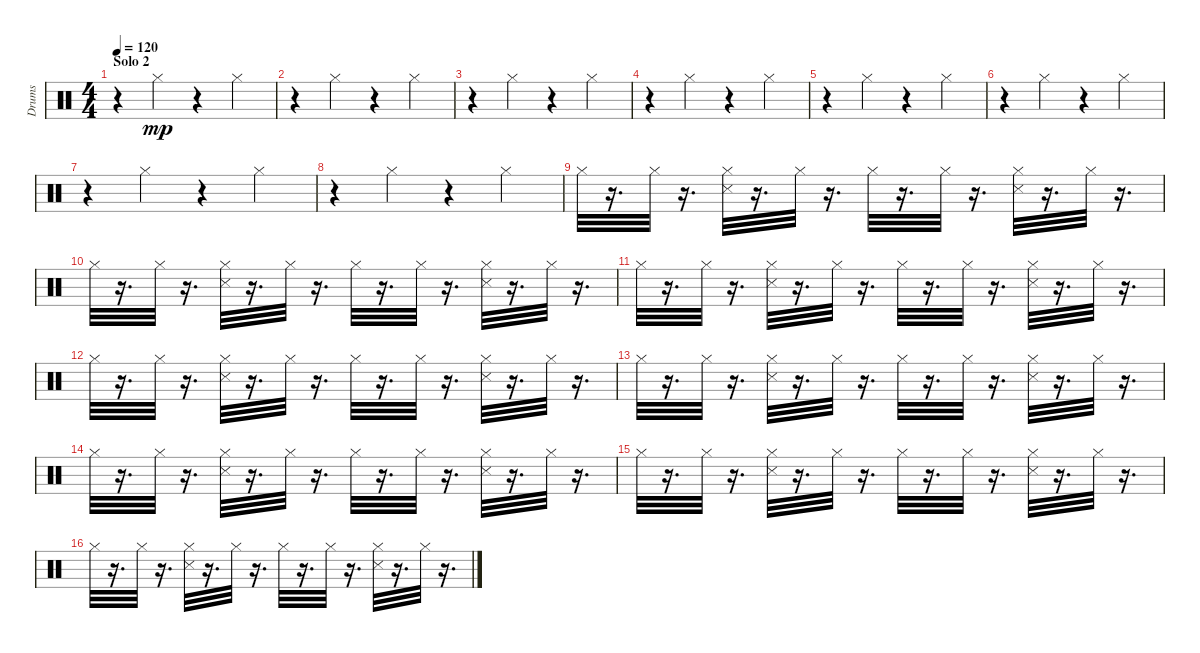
\track ("Drums" "Drums") {instrument percussion}
\staff {score}
\articulation defaults
\ts (4 4)
\section ("" "Solo 2")
\tempo 120
\clef neutral
\ks c
r.4{dy mp} "Hi-Hat (closed)".4 r.4 "Hi-Hat (closed)".4 |
r.4 "Hi-Hat (closed)".4 r.4 "Hi-Hat (closed)".4 |
r.4 "Hi-Hat (closed)".4 r.4 "Hi-Hat (closed)".4 |
r.4 "Hi-Hat (closed)".4 r.4 "Hi-Hat (closed)".4 |
r.4 "Hi-Hat (closed)".4 r.4 "Hi-Hat (closed)".4 |
r.4 "Hi-Hat (closed)".4 r.4 "Hi-Hat (closed)".4 |
r.4 "Hi-Hat (closed)".4 r.4 "Hi-Hat (closed)".4 |
r.4 "Hi-Hat (closed)".4 r.4 "Hi-Hat (closed)".4 |
"Hi-Hat (closed)".32 r.16{d} "Hi-Hat (closed)".32 r.16{d} ("Hi-Hat (closed)" "Snare (side stick) 3").32 r.16{d} "Hi-Hat (closed)".32 r.16{d} "Hi-Hat (closed)".32 r.16{d} "Hi-Hat (closed)".32 r.16{d} ("Snare (side stick) 3" "Hi-Hat (closed)").32 r.16{d} "Hi-Hat (closed)".32 r.16{d} |
"Hi-Hat (closed)".32 r.16{d} "Hi-Hat (closed)".32 r.16{d} ("Hi-Hat (closed)" "Snare (side stick) 3").32 r.16{d} "Hi-Hat (closed)".32 r.16{d} "Hi-Hat (closed)".32 r.16{d} "Hi-Hat (closed)".32 r.16{d} ("Snare (side stick) 3" "Hi-Hat (closed)").32 r.16{d} "Hi-Hat (closed)".32 r.16{d} |
"Hi-Hat (closed)".32 r.16{d} "Hi-Hat (closed)".32 r.16{d} ("Hi-Hat (closed)" "Snare (side stick) 3").32 r.16{d} "Hi-Hat (closed)".32 r.16{d} "Hi-Hat (closed)".32 r.16{d} "Hi-Hat (closed)".32 r.16{d} ("Snare (side stick) 3" "Hi-Hat (closed)").32 r.16{d} "Hi-Hat (closed)".32 r.16{d} |
"Hi-Hat (closed)".32 r.16{d} "Hi-Hat (closed)".32 r.16{d} ("Hi-Hat (closed)" "Snare (side stick) 3").32 r.16{d} "Hi-Hat (closed)".32 r.16{d} "Hi-Hat (closed)".32 r.16{d} "Hi-Hat (closed)".32 r.16{d} ("Snare (side stick) 3" "Hi-Hat (closed)").32 r.16{d} "Hi-Hat (closed)".32 r.16{d} |
"Hi-Hat (closed)".32 r.16{d} "Hi-Hat (closed)".32 r.16{d} ("Hi-Hat (closed)" "Snare (side stick) 3").32 r.16{d} "Hi-Hat (closed)".32 r.16{d} "Hi-Hat (closed)".32 r.16{d} "Hi-Hat (closed)".32 r.16{d} ("Snare (side stick) 3" "Hi-Hat (closed)").32 r.16{d} "Hi-Hat (closed)".32 r.16{d} |
"Hi-Hat (closed)".32 r.16{d} "Hi-Hat (closed)".32 r.16{d} ("Hi-Hat (closed)" "Snare (side stick) 3").32 r.16{d} "Hi-Hat (closed)".32 r.16{d} "Hi-Hat (closed)".32 r.16{d} "Hi-Hat (closed)".32 r.16{d} ("Snare (side stick) 3" "Hi-Hat (closed)").32 r.16{d} "Hi-Hat (closed)".32 r.16{d} |
"Hi-Hat (closed)".32 r.16{d} "Hi-Hat (closed)".32 r.16{d} ("Hi-Hat (closed)" "Snare (side stick) 3").32 r.16{d} "Hi-Hat (closed)".32 r.16{d} "Hi-Hat (closed)".32 r.16{d} "Hi-Hat (closed)".32 r.16{d} ("Snare (side stick) 3" "Hi-Hat (closed)").32 r.16{d} "Hi-Hat (closed)".32 r.16{d} |
"Hi-Hat (closed)".32 r.16{d} "Hi-Hat (closed)".32 r.16{d} ("Hi-Hat (closed)" "Snare (side stick) 3").32 r.16{d} "Hi-Hat (closed)".32 r.16{d} "Hi-Hat (closed)".32 r.16{d} "Hi-Hat (closed)".32 r.16{d} ("Snare (side stick) 3" "Hi-Hat (closed)").32 r.16{d} "Hi-Hat (closed)".32 r.16{d}
